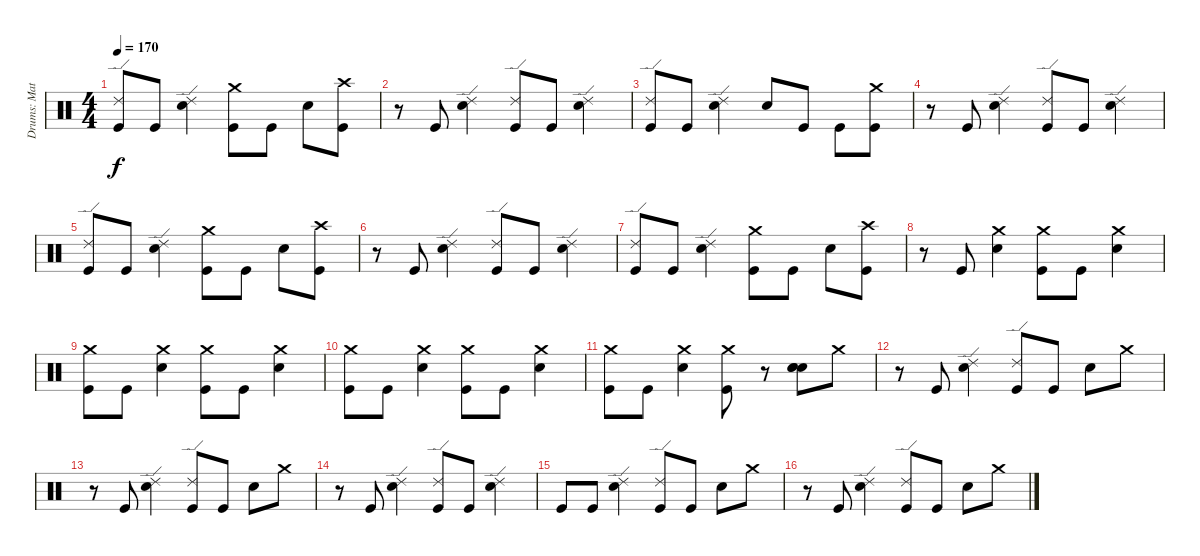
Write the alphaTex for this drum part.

\track ("Drums: Matt" "Drums: Mat") {instrument percussion}
\staff {score}
\articulation defaults
\ts (4 4)
\tempo 170
\clef neutral
\ks c
("Ride (edge) 2" "Kick (hit)").8{dy f} "Kick (hit)".8 ("Snare (hit) 2" "Ride (edge) 2").4 ("Kick (hit)" "Crash medium (hit)").8 "Kick (hit)".8 "Snare (hit) 2".8 ("Kick (hit)" "Crash high (hit)").8 |
r.8 "Kick (hit)".8 ("Ride (edge) 2" "Snare (hit) 2").4 ("Kick (hit)" "Ride (edge) 2").8 "Kick (hit)".8 ("Snare (hit) 2" "Ride (edge) 2").4 |
("Ride (edge) 2" "Kick (hit)").8 "Kick (hit)".8 ("Snare (hit) 2" "Ride (edge) 2").4 "Snare (hit) 2".8 "Kick (hit)".8 "Kick (hit)".8 ("Crash medium (hit)" "Kick (hit)").8 |
r.8 "Kick (hit)".8 ("Ride (edge) 2" "Snare (hit) 2").4 ("Kick (hit)" "Ride (edge) 2").8 "Kick (hit)".8 ("Snare (hit) 2" "Ride (edge) 2").4 |
("Ride (edge) 2" "Kick (hit)").8 "Kick (hit)".8 ("Snare (hit) 2" "Ride (edge) 2").4 ("Crash medium (hit)" "Kick (hit)").8 "Kick (hit)".8 "Snare (hit) 2".8 ("Kick (hit)" "Crash high (hit)").8 |
r.8 "Kick (hit)".8 ("Snare (hit) 2" "Ride (edge) 2").4 ("Kick (hit)" "Ride (edge) 2").8 "Kick (hit)".8 ("Ride (edge) 2" "Snare (hit) 2").4 |
("Kick (hit)" "Ride (edge) 2").8 "Kick (hit)".8 ("Ride (edge) 2" "Snare (hit) 2").4 ("Crash medium (hit)" "Kick (hit)").8 "Kick (hit)".8 "Snare (hit) 2".8 ("Kick (hit)" "Crash high (hit)").8 |
r.8 "Kick (hit)".8 ("Snare (hit) 2" "Crash medium (hit)").4 ("Kick (hit)" "Crash medium (hit)").8 "Kick (hit)".8 ("Crash medium (hit)" "Snare (hit) 2").4 |
("Crash medium (hit)" "Kick (hit)").8 "Kick (hit)".8 ("Snare (hit) 2" "Crash medium (hit)").4 ("Crash medium (hit)" "Kick (hit)").8 "Kick (hit)".8 ("Crash medium (hit)" "Snare (hit) 2").4 |
("Crash medium (hit)" "Kick (hit)").8 "Kick (hit)".8 ("Snare (hit) 2" "Crash medium (hit)").4 ("Kick (hit)" "Crash medium (hit)").8 "Kick (hit)".8 ("Snare (hit) 2" "Crash medium (hit)").4 |
("Kick (hit)" "Crash medium (hit)").8 "Kick (hit)".8 ("Snare (hit) 2" "Crash medium (hit)").4 ("Crash medium (hit)" "Kick (hit)").8 r.8 ("Snare (hit) 2" "Snare (hit) 2" "Snare (hit) 2").8 "Crash medium (hit)".8 |
r.8 "Kick (hit)".8 ("Snare (hit) 2" "Ride (edge) 2").4 ("Ride (edge) 2" "Kick (hit)").8 "Kick (hit)".8 "Snare (hit) 2".8 "Crash medium (hit)".8 |
r.8 "Kick (hit)".8 ("Ride (edge) 2" "Snare (hit) 2").4 ("Ride (edge) 2" "Kick (hit)").8 "Kick (hit)".8 "Snare (hit) 2".8 "Crash medium (hit)".8 |
r.8 "Kick (hit)".8 ("Ride (edge) 2" "Snare (hit) 2").4 ("Ride (edge) 2" "Kick (hit)").8 "Kick (hit)".8 ("Snare (hit) 2" "Ride (edge) 2").4 |
"Kick (hit)".8 "Kick (hit)".8 ("Ride (edge) 2" "Snare (hit) 2").4 ("Ride (edge) 2" "Kick (hit)").8 "Kick (hit)".8 "Snare (hit) 2".8 "Crash medium (hit)".8 |
r.8 "Kick (hit)".8 ("Snare (hit) 2" "Ride (edge) 2").4 ("Kick (hit)" "Ride (edge) 2").8 "Kick (hit)".8 "Snare (hit) 2".8 "Crash medium (hit)".8
